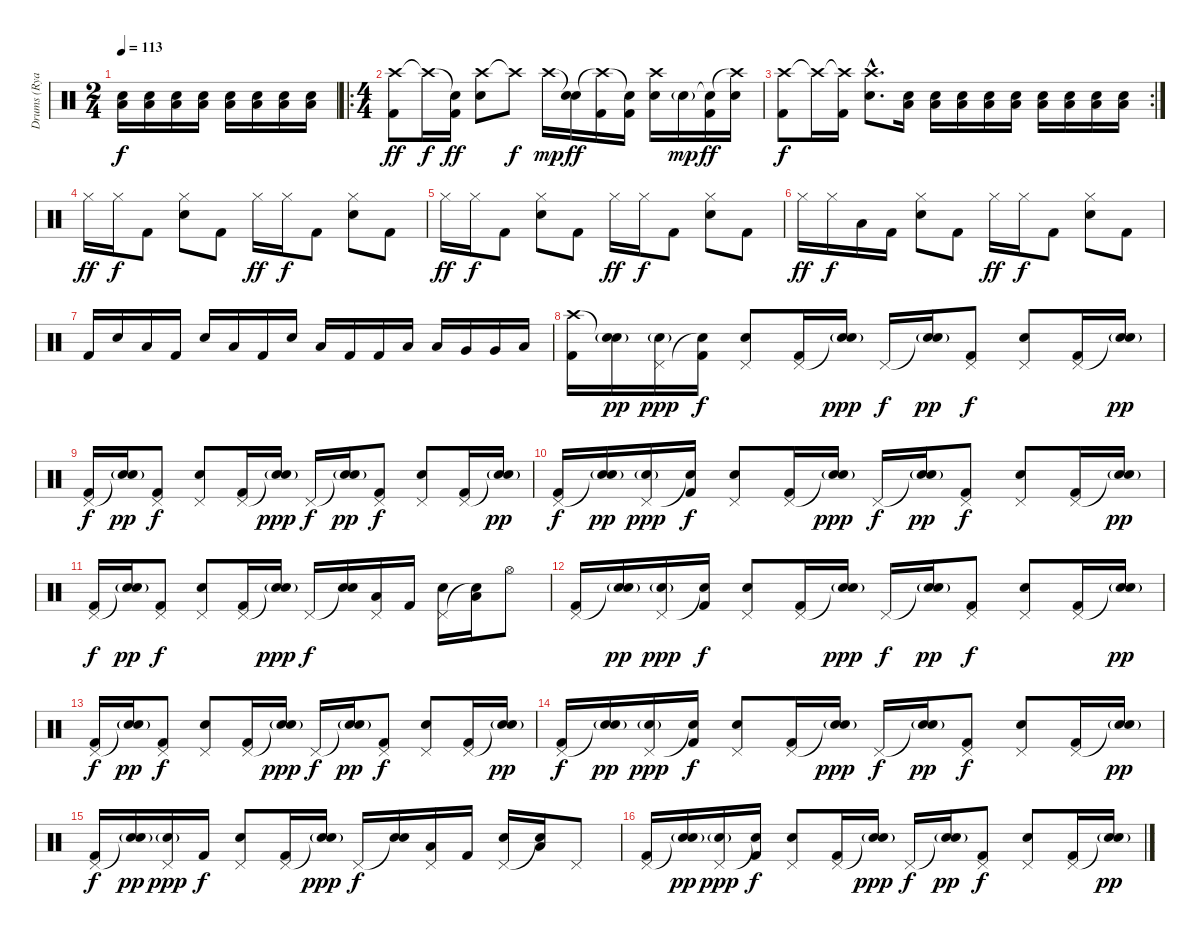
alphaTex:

\track ("Drums (Ryan \"Nik\" Vikedal)" "Drums (Rya") {instrument percussion}
\staff {score}
\articulation defaults
\ts (2 4)
\tempo 113
\clef neutral
\ks c
("Low Tom (hit)" "Electric Snare (hit)").16{dy f} ("Low Tom (hit)" "Electric Snare (hit)").16 ("Low Tom (hit)" "Electric Snare (hit)").16 ("Low Tom (hit)" "Electric Snare (hit)").16 ("Low Tom (hit)" "Electric Snare (hit)").16 ("Low Tom (hit)" "Electric Snare (hit)").16 ("Low Tom (hit)" "Electric Snare (hit)").16 ("Low Tom (hit)" "Electric Snare (hit)").16 |
\ro
\ts (4 4)
("Crash high (hit)" "Kick (hit) 2").8{dy ff} "Crash high (hit)"{t}.16{dy f} ("Snare (hit)"{t} "Kick (hit) 2").16{dy ff} ("Crash high (hit)" "Electric Snare (hit)").8 "Crash high (hit)"{t}.8{dy f} "Crash high (hit)".16{dy mp} ("Snare (hit)"{t} "Electric Snare (hit)").16{dy ff} ("Crash high (hit)"{t} "Kick (hit) 2").16 ("Snare (hit)"{t} "Kick (hit) 2").16 ("Crash high (hit)" "Electric Snare (hit)").16 "Electric Snare (hit)"{g}.16{dy mp} ("Snare (hit)"{t} "Kick (hit) 2").16{dy ff} ("Crash high (hit)"{t} "Electric Snare (hit)").16 |
\rc 2
("Crash high (hit)" "Kick (hit) 2").8{dy f} "Crash high (hit)"{t}.16 ("Crash high (hit)"{t} "Kick (hit) 2").16 ("Crash high (hit)"{hac} "Electric Snare (hit)"{hac}).8{d} ("Low Tom (hit)" "Electric Snare (hit)").16 ("Low Tom (hit)" "Electric Snare (hit)").16 ("Low Tom (hit)" "Electric Snare (hit)").16 ("Low Tom (hit)" "Electric Snare (hit)").16 ("Low Tom (hit)" "Electric Snare (hit)").16 ("Low Tom (hit)" "Electric Snare (hit)").16 ("Low Tom (hit)" "Electric Snare (hit)").16 ("Low Tom (hit)" "Electric Snare (hit)").16 ("Low Tom (hit)" "Electric Snare (hit)").16 |
"Hi-Hat (closed)".16{dy ff} "Hi-Hat (closed)".16{dy f} "Kick (hit) 2".8 ("Hi-Hat (closed)" "Electric Snare (hit)").8 "Kick (hit) 2".8 "Hi-Hat (closed)".16{dy ff} "Hi-Hat (closed)".16{dy f} "Kick (hit) 2".8 ("Hi-Hat (closed)" "Electric Snare (hit)").8 "Kick (hit) 2".8 |
"Hi-Hat (closed)".16{dy ff} "Hi-Hat (closed)".16{dy f} "Kick (hit) 2".8 ("Hi-Hat (closed)" "Electric Snare (hit)").8 "Kick (hit) 2".8 "Hi-Hat (closed)".16{dy ff} "Hi-Hat (closed)".16{dy f} "Kick (hit) 2".8 ("Hi-Hat (closed)" "Electric Snare (hit)").8 "Kick (hit) 2".8 |
"Hi-Hat (closed)".16{dy ff} "Hi-Hat (closed)".16{dy f} "Low Tom (hit)".16 "Kick (hit) 2".16 ("Hi-Hat (closed)" "Electric Snare (hit)").8 "Kick (hit) 2".8 "Hi-Hat (closed)".16{dy ff} "Hi-Hat (closed)".16{dy f} "Kick (hit) 2".8 ("Hi-Hat (closed)" "Electric Snare (hit)").8 "Kick (hit) 2".8 |
"Kick (hit) 2".16 "Electric Snare (hit)".16 "Low Tom (hit)".16 "Kick (hit) 2".16 "Electric Snare (hit)".16 "Low Tom (hit)".16 "Kick (hit) 2".16 "Electric Snare (hit)".16 "Low Tom (hit)".16 "Kick (hit) 2".16 "Kick (hit) 2".16 "Low Tom (hit)".16 "Low Tom (hit)".16 "Very Low Tom (hit)".16 "Very Low Tom (hit)".16 "Low Floor Tom (hit)".16 |
("Crash high (hit)" "Kick (hit) 2").16 ("Snare (hit)"{t} "Electric Snare (hit)"{g}).16{dy pp} ("Pedal Hi-Hat (hit)" "Electric Snare (hit)"{g}).16{dy ppp} ("Snare (hit)"{t} "Kick (hit) 2").16{dy f} ("Pedal Hi-Hat (hit)" "Electric Snare (hit)").8 ("Pedal Hi-Hat (hit)" "Kick (hit) 2").16 ("Snare (hit)"{t} "Electric Snare (hit)"{g}).16{dy ppp} "Pedal Hi-Hat (hit)".16{dy f} ("Snare (hit)"{t} "Electric Snare (hit)"{g}).16{dy pp} ("Pedal Hi-Hat (hit)" "Kick (hit) 2").8{dy f} ("Pedal Hi-Hat (hit)" "Electric Snare (hit)").8 ("Pedal Hi-Hat (hit)" "Kick (hit) 2").16 ("Snare (hit)"{t} "Electric Snare (hit)"{g}).16{dy pp} |
("Pedal Hi-Hat (hit)" "Kick (hit) 2").16{dy f} ("Snare (hit)"{t} "Electric Snare (hit)"{g}).16{dy pp} ("Pedal Hi-Hat (hit)" "Kick (hit) 2").8{dy f} ("Pedal Hi-Hat (hit)" "Electric Snare (hit)").8 ("Pedal Hi-Hat (hit)" "Kick (hit) 2").16 ("Snare (hit)"{t} "Electric Snare (hit)"{g}).16{dy ppp} "Pedal Hi-Hat (hit)".16{dy f} ("Snare (hit)"{t} "Electric Snare (hit)"{g}).16{dy pp} ("Pedal Hi-Hat (hit)" "Kick (hit) 2").8{dy f} ("Pedal Hi-Hat (hit)" "Electric Snare (hit)").8 ("Pedal Hi-Hat (hit)" "Kick (hit) 2").16 ("Snare (hit)"{t} "Electric Snare (hit)"{g}).16{dy pp} |
("Pedal Hi-Hat (hit)" "Kick (hit) 2").16{dy f} ("Snare (hit)"{t} "Electric Snare (hit)"{g}).16{dy pp} ("Pedal Hi-Hat (hit)" "Electric Snare (hit)"{g}).16{dy ppp} ("Snare (hit)"{t} "Kick (hit) 2").16{dy f} ("Pedal Hi-Hat (hit)" "Electric Snare (hit)").8 ("Pedal Hi-Hat (hit)" "Kick (hit) 2").16 ("Snare (hit)"{t} "Electric Snare (hit)"{g}).16{dy ppp} "Pedal Hi-Hat (hit)".16{dy f} ("Snare (hit)"{t} "Electric Snare (hit)"{g}).16{dy pp} ("Pedal Hi-Hat (hit)" "Kick (hit) 2").8{dy f} ("Pedal Hi-Hat (hit)" "Electric Snare (hit)").8 ("Pedal Hi-Hat (hit)" "Kick (hit) 2").16 ("Snare (hit)"{t} "Electric Snare (hit)"{g}).16{dy pp} |
("Pedal Hi-Hat (hit)" "Kick (hit) 2").16{dy f} ("Snare (hit)"{t} "Electric Snare (hit)"{g}).16{dy pp} ("Pedal Hi-Hat (hit)" "Kick (hit) 2").8{dy f} ("Pedal Hi-Hat (hit)" "Electric Snare (hit)").8 ("Pedal Hi-Hat (hit)" "Kick (hit) 2").16 ("Snare (hit)"{t} "Electric Snare (hit)"{g}).16{dy ppp} "Pedal Hi-Hat (hit)".16{dy f} ("Snare (hit)"{t} "Electric Snare (hit)").16 ("Pedal Hi-Hat (hit)" "Low Tom (hit)").16 "Kick (hit) 2".16 ("Pedal Hi-Hat (hit)" "Electric Snare (hit)").16 ("Snare (hit)"{t} "Low Tom (hit)").16 "Hi-Hat (open)".8 |
("Pedal Hi-Hat (hit)" "Kick (hit) 2").16 ("Snare (hit)"{t} "Electric Snare (hit)"{g}).16{dy pp} ("Pedal Hi-Hat (hit)" "Electric Snare (hit)"{g}).16{dy ppp} ("Snare (hit)"{t} "Kick (hit) 2").16{dy f} ("Pedal Hi-Hat (hit)" "Electric Snare (hit)").8 ("Pedal Hi-Hat (hit)" "Kick (hit) 2").16 ("Snare (hit)"{t} "Electric Snare (hit)"{g}).16{dy ppp} "Pedal Hi-Hat (hit)".16{dy f} ("Snare (hit)"{t} "Electric Snare (hit)"{g}).16{dy pp} ("Pedal Hi-Hat (hit)" "Kick (hit) 2").8{dy f} ("Pedal Hi-Hat (hit)" "Electric Snare (hit)").8 ("Pedal Hi-Hat (hit)" "Kick (hit) 2").16 ("Snare (hit)"{t} "Electric Snare (hit)"{g}).16{dy pp} |
("Pedal Hi-Hat (hit)" "Kick (hit) 2").16{dy f} ("Snare (hit)"{t} "Electric Snare (hit)"{g}).16{dy pp} ("Pedal Hi-Hat (hit)" "Kick (hit) 2").8{dy f} ("Pedal Hi-Hat (hit)" "Electric Snare (hit)").8 ("Pedal Hi-Hat (hit)" "Kick (hit) 2").16 ("Snare (hit)"{t} "Electric Snare (hit)"{g}).16{dy ppp} "Pedal Hi-Hat (hit)".16{dy f} ("Snare (hit)"{t} "Electric Snare (hit)"{g}).16{dy pp} ("Pedal Hi-Hat (hit)" "Kick (hit) 2").8{dy f} ("Pedal Hi-Hat (hit)" "Electric Snare (hit)").8 ("Pedal Hi-Hat (hit)" "Kick (hit) 2").16 ("Snare (hit)"{t} "Electric Snare (hit)"{g}).16{dy pp} |
("Pedal Hi-Hat (hit)" "Kick (hit) 2").16{dy f} ("Snare (hit)"{t} "Electric Snare (hit)"{g}).16{dy pp} ("Pedal Hi-Hat (hit)" "Electric Snare (hit)"{g}).16{dy ppp} ("Snare (hit)"{t} "Kick (hit) 2").16{dy f} ("Pedal Hi-Hat (hit)" "Electric Snare (hit)").8 ("Pedal Hi-Hat (hit)" "Kick (hit) 2").16 ("Snare (hit)"{t} "Electric Snare (hit)"{g}).16{dy ppp} "Pedal Hi-Hat (hit)".16{dy f} ("Snare (hit)"{t} "Electric Snare (hit)"{g}).16{dy pp} ("Pedal Hi-Hat (hit)" "Kick (hit) 2").8{dy f} ("Pedal Hi-Hat (hit)" "Electric Snare (hit)").8 ("Pedal Hi-Hat (hit)" "Kick (hit) 2").16 ("Snare (hit)"{t} "Electric Snare (hit)"{g}).16{dy pp} |
("Pedal Hi-Hat (hit)" "Kick (hit) 2").16{dy f} ("Snare (hit)"{t} "Electric Snare (hit)"{g}).16{dy pp} ("Pedal Hi-Hat (hit)" "Electric Snare (hit)"{g}).16{dy ppp} "Kick (hit) 2".16{dy f} ("Pedal Hi-Hat (hit)" "Electric Snare (hit)").8 ("Pedal Hi-Hat (hit)" "Kick (hit) 2").16 ("Snare (hit)"{t} "Electric Snare (hit)"{g}).16{dy ppp} "Pedal Hi-Hat (hit)".16{dy f} ("Snare (hit)"{t} "Electric Snare (hit)").16 ("Pedal Hi-Hat (hit)" "Low Tom (hit)").16 "Kick (hit) 2".16 ("Pedal Hi-Hat (hit)" "Electric Snare (hit)").16 ("Snare (hit)"{t} "Low Tom (hit)").16 "Pedal Hi-Hat (hit)".8 |
("Pedal Hi-Hat (hit)" "Kick (hit) 2").16 ("Snare (hit)"{t} "Electric Snare (hit)"{g}).16{dy pp} ("Pedal Hi-Hat (hit)" "Electric Snare (hit)"{g}).16{dy ppp} ("Snare (hit)"{t} "Kick (hit) 2").16{dy f} ("Pedal Hi-Hat (hit)" "Electric Snare (hit)").8 ("Pedal Hi-Hat (hit)" "Kick (hit) 2").16 ("Snare (hit)"{t} "Electric Snare (hit)"{g}).16{dy ppp} "Pedal Hi-Hat (hit)".16{dy f} ("Snare (hit)"{t} "Electric Snare (hit)"{g}).16{dy pp} ("Pedal Hi-Hat (hit)" "Kick (hit) 2").8{dy f} ("Pedal Hi-Hat (hit)" "Electric Snare (hit)").8 ("Pedal Hi-Hat (hit)" "Kick (hit) 2").16 ("Snare (hit)"{t} "Electric Snare (hit)"{g}).16{dy pp}
